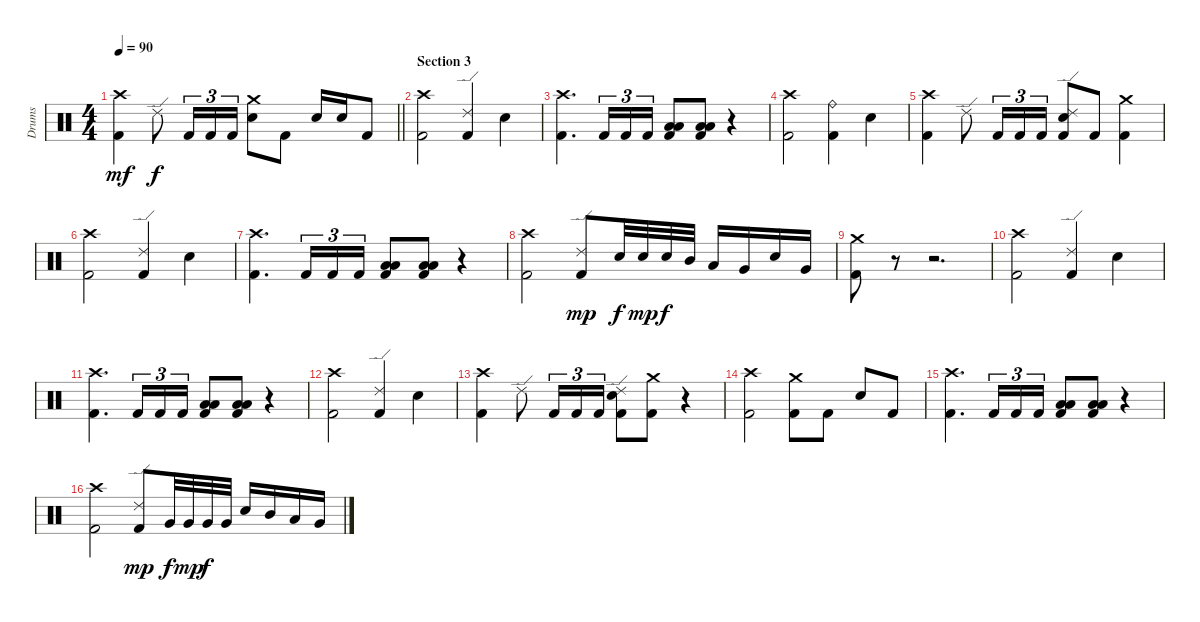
\track ("Drums" "Drums") {instrument percussion}
\staff {score}
\articulation defaults
\ts (4 4)
\tempo 90
\clef neutral
\barLineRight lightlight
\ks c
("Crash high (hit)" "Kick (hit) 2").4{dy mf} "Ride (edge) 2".8{dy f} "Kick (hit) 2".16{tu (3 2)} "Kick (hit) 2".16{tu (3 2)} "Kick (hit) 2".16{tu (3 2)} ("Crash medium (hit)" "Electric Snare (hit)").8 "Kick (hit) 2".8 "Electric Snare (hit)".16 "Electric Snare (hit)".16 "Kick (hit) 2".8 |
\section ("" "Section 3")
("Crash high (hit)" "Kick (hit) 2").2 ("Ride (edge) 2" "Kick (hit) 2").4 "Electric Snare (hit)".4 |
("Crash high (hit)" "Kick (hit) 2").4{d} "Kick (hit) 2".16{tu (3 2)} "Kick (hit) 2".16{tu (3 2)} "Kick (hit) 2".16{tu (3 2)} ("Low Tom (hit)" "Low Floor Tom (hit)" "Kick (hit) 2").8 ("Low Tom (hit)" "Low Floor Tom (hit)" "Kick (hit) 2").8 r.4 |
("Crash high (hit)" "Kick (hit) 2").2 ("Ride (bell)" "Kick (hit) 2").4 "Electric Snare (hit)".4 |
("Crash high (hit)" "Kick (hit) 2").4 "Ride (edge) 2".8 "Kick (hit) 2".16{tu (3 2)} "Kick (hit) 2".16{tu (3 2)} "Kick (hit) 2".16{tu (3 2)} ("Ride (edge) 2" "Electric Snare (hit)" "Kick (hit) 2").8 "Kick (hit) 2".8 ("Crash medium (hit)" "Kick (hit) 2").4 |
("Crash high (hit)" "Kick (hit) 2").2 ("Ride (edge) 2" "Kick (hit) 2").4 "Electric Snare (hit)".4 |
("Crash high (hit)" "Kick (hit) 2").4{d} "Kick (hit) 2".16{tu (3 2)} "Kick (hit) 2".16{tu (3 2)} "Kick (hit) 2".16{tu (3 2)} ("Low Tom (hit)" "Low Floor Tom (hit)" "Kick (hit) 2").8 ("Low Tom (hit)" "Low Floor Tom (hit)" "Kick (hit) 2").8 r.4 |
("Crash high (hit)" "Kick (hit) 2").2 ("Ride (edge) 2" "Kick (hit) 2").8{dy mp} "Electric Snare (hit)".32{dy f} "Electric Snare (hit)".32{dy mp} "Electric Snare (hit)".32{dy f} "Mid Tom (hit)".32 "Low Tom (hit)".16 "Very Low Tom (hit)".16 "Electric Snare (hit)".16 "Very Low Tom (hit)".16 |
("Crash medium (hit)" "Kick (hit) 2").8 r.8 r.2{d} |
("Crash high (hit)" "Kick (hit) 2").2 ("Ride (edge) 2" "Kick (hit) 2").4 "Electric Snare (hit)".4 |
("Crash high (hit)" "Kick (hit) 2").4{d} "Kick (hit) 2".16{tu (3 2)} "Kick (hit) 2".16{tu (3 2)} "Kick (hit) 2".16{tu (3 2)} ("Low Tom (hit)" "Low Floor Tom (hit)" "Kick (hit) 2").8 ("Low Tom (hit)" "Low Floor Tom (hit)" "Kick (hit) 2").8 r.4 |
("Crash high (hit)" "Kick (hit) 2").2 ("Ride (edge) 2" "Kick (hit) 2").4 "Electric Snare (hit)".4 |
("Crash high (hit)" "Kick (hit) 2").4 "Ride (edge) 2".8 "Kick (hit) 2".16{tu (3 2)} "Kick (hit) 2".16{tu (3 2)} "Kick (hit) 2".16{tu (3 2)} ("Ride (edge) 2" "Electric Snare (hit)" "Kick (hit) 2").8 ("Crash medium (hit)" "Kick (hit) 2").8 r.4 |
("Crash high (hit)" "Kick (hit) 2").2 ("Crash medium (hit)" "Kick (hit) 2").8 "Kick (hit) 2".8 "Electric Snare (hit)".8 "Kick (hit) 2".8 |
("Crash high (hit)" "Kick (hit) 2").4{d} "Kick (hit) 2".16{tu (3 2)} "Kick (hit) 2".16{tu (3 2)} "Kick (hit) 2".16{tu (3 2)} ("Low Tom (hit)" "Low Floor Tom (hit)" "Kick (hit) 2").8 ("Low Tom (hit)" "Low Floor Tom (hit)" "Kick (hit) 2").8 r.4 |
("Crash high (hit)" "Kick (hit) 2").2 ("Ride (edge) 2" "Kick (hit) 2").8{dy mp} "Very Low Tom (hit)".32{dy f} "Very Low Tom (hit)".32{dy mp} "Very Low Tom (hit)".32{dy f} "Very Low Tom (hit)".32 "Electric Snare (hit)".16 "Mid Tom (hit)".16 "Low Tom (hit)".16 "Very Low Tom (hit)".16
